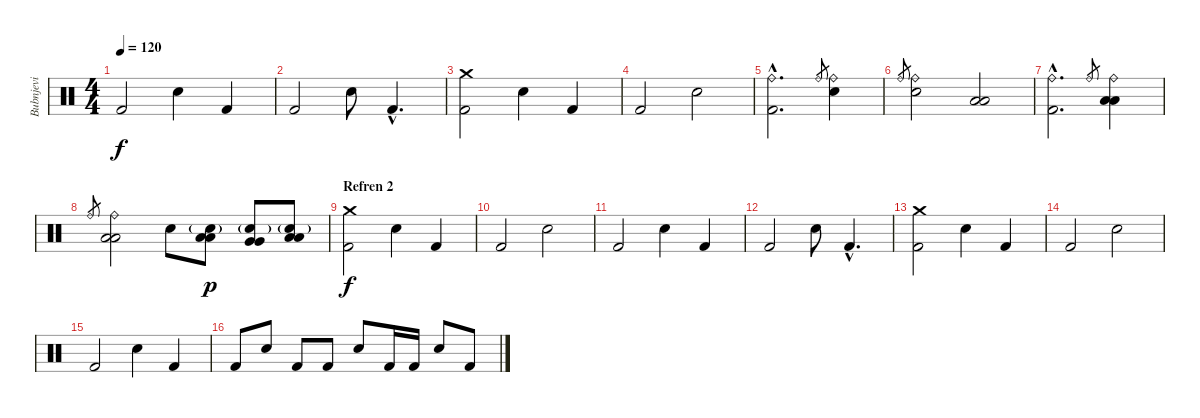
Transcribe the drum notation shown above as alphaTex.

\track ("Bubnjevi" "Bubnjevi") {instrument percussion}
\staff {score}
\articulation defaults
\ts (4 4)
\tempo 120
\clef neutral
\ks c "Kick (hit) 2".2{dy f} "Snare (hit) 2".4 "Kick (hit) 2".4
|
"Kick (hit) 2".2 "Snare (hit) 2".8 "Kick (hit) 2"{hac}.4{d} |
("Crash medium (hit)" "Kick (hit) 2").2 "Snare (hit) 2".4 "Kick (hit) 2".4 |
"Kick (hit) 2".2 "Snare (hit) 2".2 |
("Ride (bell)"{hac} "Kick (hit) 2"{hac}).2{d} "Ride (bell)".8{gr} ("Ride (bell)" "Snare (hit) 2").4 |
"Ride (bell)".8{gr} ("Ride (bell)" "Snare (hit) 2").2 ("Low Tom (hit)" "Low Tom (hit)").2 |
("Ride (bell)"{hac} "Kick (hit) 2"{hac}).2{d} "Ride (bell)".8{gr} ("Low Tom (hit)" "Ride (bell)" "Low Tom (hit)").4 |
"Ride (bell)".8{gr} ("Low Tom (hit)" "Ride (bell)" "Low Tom (hit)").2 "Snare (hit) 2".8 ("Low Tom (hit)" "Low Tom (hit)" "Snare (hit) 2"{g}).8{dy p} ("Very Low Tom (hit)" "Very Low Tom (hit)" "Snare (hit) 2"{g}).8 ("Low Floor Tom (hit)" "Low Floor Tom (hit)" "Snare (hit) 2"{g}).8 |
\section ("" "Refren 2")
("Crash medium (hit)" "Kick (hit) 2").2{dy f} "Snare (hit) 2".4 "Kick (hit) 2".4 |
"Kick (hit) 2".2 "Snare (hit) 2".2 |
"Kick (hit) 2".2 "Snare (hit) 2".4 "Kick (hit) 2".4 |
"Kick (hit) 2".2 "Snare (hit) 2".8 "Kick (hit) 2"{hac}.4{d} |
("Crash medium (hit)" "Kick (hit) 2").2 "Snare (hit) 2".4 "Kick (hit) 2".4 |
"Kick (hit) 2".2 "Snare (hit) 2".2 |
"Kick (hit) 2".2 "Snare (hit) 2".4 "Kick (hit) 2".4 |
"Kick (hit) 2".8 "Snare (hit) 2".8 "Kick (hit) 2".8 "Kick (hit) 2".8 "Snare (hit) 2".8 "Kick (hit) 2".16 "Kick (hit) 2".16 "Snare (hit) 2".8 "Kick (hit) 2".8
